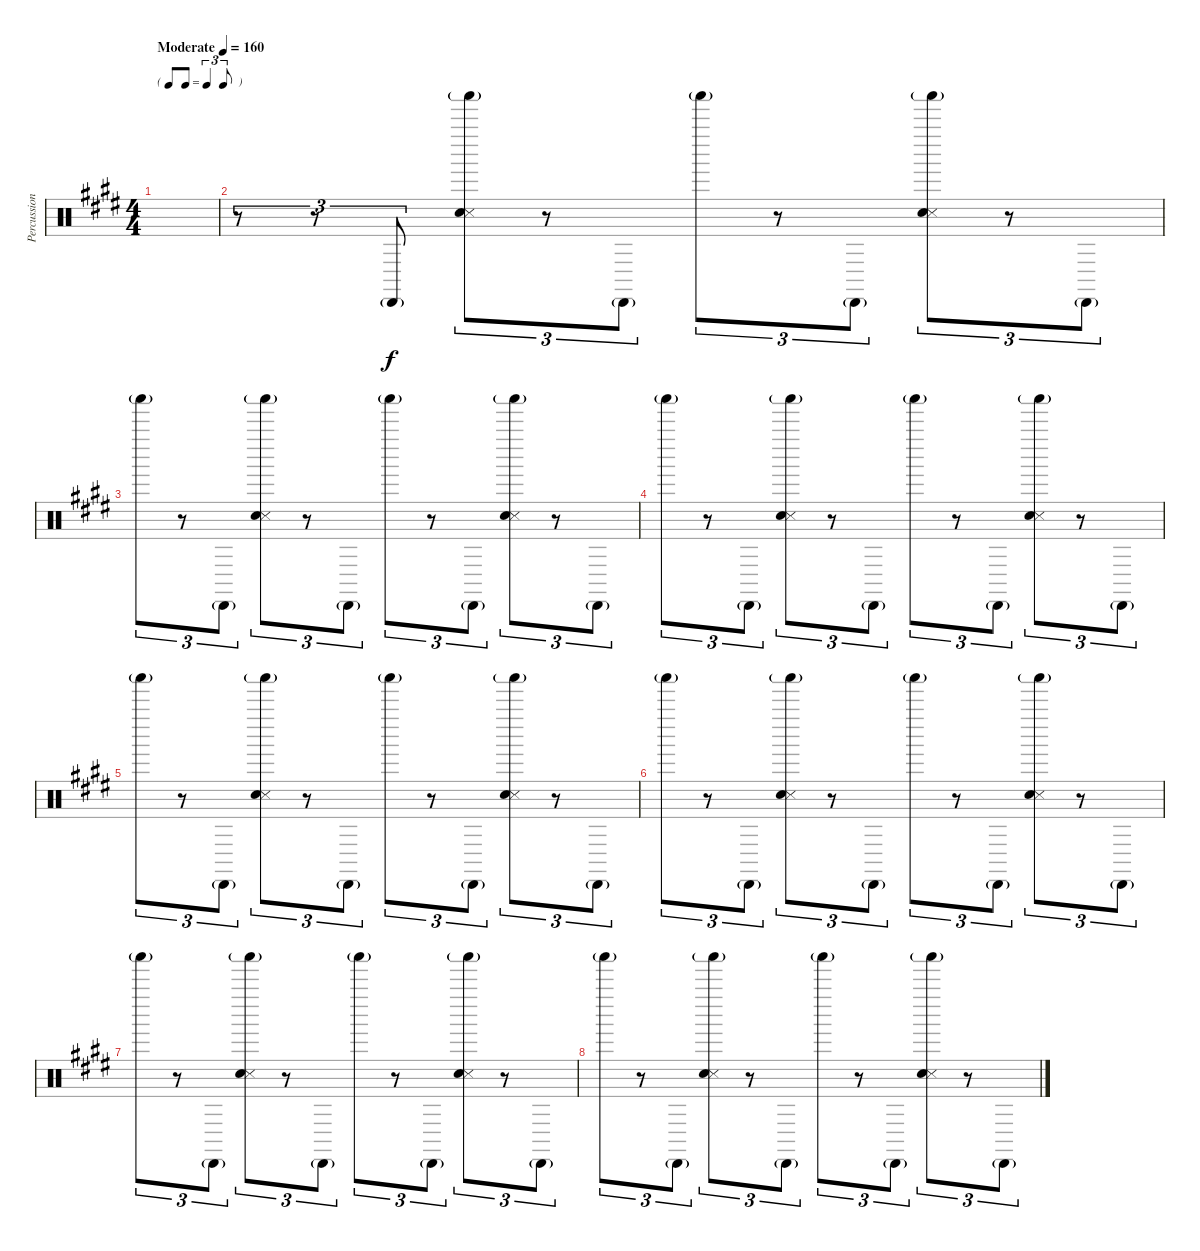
\track ("Percussion" "Percussion") {instrument percussion}
\staff {score}
\articulation defaults
\ts (4 4)
\tf triplet8th
\tempo (160 "Moderate")
\clef neutral
\ks e
|
r.8{tu (3 2)} r.8{tu (3 2)} "Cabasa (hit)"{g}.8{tu (3 2)} ("Shaker (hit)"{g} "Snare (side stick) 3" "Hand Clap (hit)").8{tu (3 2)} r.8{tu (3 2)} "Cabasa (hit)"{g}.8{tu (3 2)} "Shaker (hit)"{g}.8{tu (3 2)} r.8{tu (3 2)} "Cabasa (hit)"{g}.8{tu (3 2)} ("Shaker (hit)"{g} "Snare (side stick) 3" "Hand Clap (hit)").8{tu (3 2)} r.8{tu (3 2)} "Cabasa (hit)"{g}.8{tu (3 2)} |
"Shaker (hit)"{g}.8{tu (3 2)} r.8{tu (3 2)} "Cabasa (hit)"{g}.8{tu (3 2)} ("Shaker (hit)"{g} "Snare (side stick) 3" "Hand Clap (hit)").8{tu (3 2)} r.8{tu (3 2)} "Cabasa (hit)"{g}.8{tu (3 2)} "Shaker (hit)"{g}.8{tu (3 2)} r.8{tu (3 2)} "Cabasa (hit)"{g}.8{tu (3 2)} ("Shaker (hit)"{g} "Snare (side stick) 3" "Hand Clap (hit)").8{tu (3 2)} r.8{tu (3 2)} "Cabasa (hit)"{g}.8{tu (3 2)} |
"Shaker (hit)"{g}.8{tu (3 2)} r.8{tu (3 2)} "Cabasa (hit)"{g}.8{tu (3 2)} ("Shaker (hit)"{g} "Snare (side stick) 3" "Hand Clap (hit)").8{tu (3 2)} r.8{tu (3 2)} "Cabasa (hit)"{g}.8{tu (3 2)} "Shaker (hit)"{g}.8{tu (3 2)} r.8{tu (3 2)} "Cabasa (hit)"{g}.8{tu (3 2)} ("Shaker (hit)"{g} "Snare (side stick) 3" "Hand Clap (hit)").8{tu (3 2)} r.8{tu (3 2)} "Cabasa (hit)"{g}.8{tu (3 2)} |
"Shaker (hit)"{g}.8{tu (3 2)} r.8{tu (3 2)} "Cabasa (hit)"{g}.8{tu (3 2)} ("Shaker (hit)"{g} "Snare (side stick) 3" "Hand Clap (hit)").8{tu (3 2)} r.8{tu (3 2)} "Cabasa (hit)"{g}.8{tu (3 2)} "Shaker (hit)"{g}.8{tu (3 2)} r.8{tu (3 2)} "Cabasa (hit)"{g}.8{tu (3 2)} ("Shaker (hit)"{g} "Snare (side stick) 3" "Hand Clap (hit)").8{tu (3 2)} r.8{tu (3 2)} "Cabasa (hit)"{g}.8{tu (3 2)} |
"Shaker (hit)"{g}.8{tu (3 2)} r.8{tu (3 2)} "Cabasa (hit)"{g}.8{tu (3 2)} ("Shaker (hit)"{g} "Snare (side stick) 3" "Hand Clap (hit)").8{tu (3 2)} r.8{tu (3 2)} "Cabasa (hit)"{g}.8{tu (3 2)} "Shaker (hit)"{g}.8{tu (3 2)} r.8{tu (3 2)} "Cabasa (hit)"{g}.8{tu (3 2)} ("Shaker (hit)"{g} "Snare (side stick) 3" "Hand Clap (hit)").8{tu (3 2)} r.8{tu (3 2)} "Cabasa (hit)"{g}.8{tu (3 2)} |
"Shaker (hit)"{g}.8{tu (3 2)} r.8{tu (3 2)} "Cabasa (hit)"{g}.8{tu (3 2)} ("Shaker (hit)"{g} "Snare (side stick) 3" "Hand Clap (hit)").8{tu (3 2)} r.8{tu (3 2)} "Cabasa (hit)"{g}.8{tu (3 2)} "Shaker (hit)"{g}.8{tu (3 2)} r.8{tu (3 2)} "Cabasa (hit)"{g}.8{tu (3 2)} ("Shaker (hit)"{g} "Snare (side stick) 3" "Hand Clap (hit)").8{tu (3 2)} r.8{tu (3 2)} "Cabasa (hit)"{g}.8{tu (3 2)} |
"Shaker (hit)"{g}.8{tu (3 2)} r.8{tu (3 2)} "Cabasa (hit)"{g}.8{tu (3 2)} ("Shaker (hit)"{g} "Snare (side stick) 3" "Hand Clap (hit)").8{tu (3 2)} r.8{tu (3 2)} "Cabasa (hit)"{g}.8{tu (3 2)} "Shaker (hit)"{g}.8{tu (3 2)} r.8{tu (3 2)} "Cabasa (hit)"{g}.8{tu (3 2)} ("Shaker (hit)"{g} "Snare (side stick) 3" "Hand Clap (hit)").8{tu (3 2)} r.8{tu (3 2)} "Cabasa (hit)"{g}.8{tu (3 2)}
